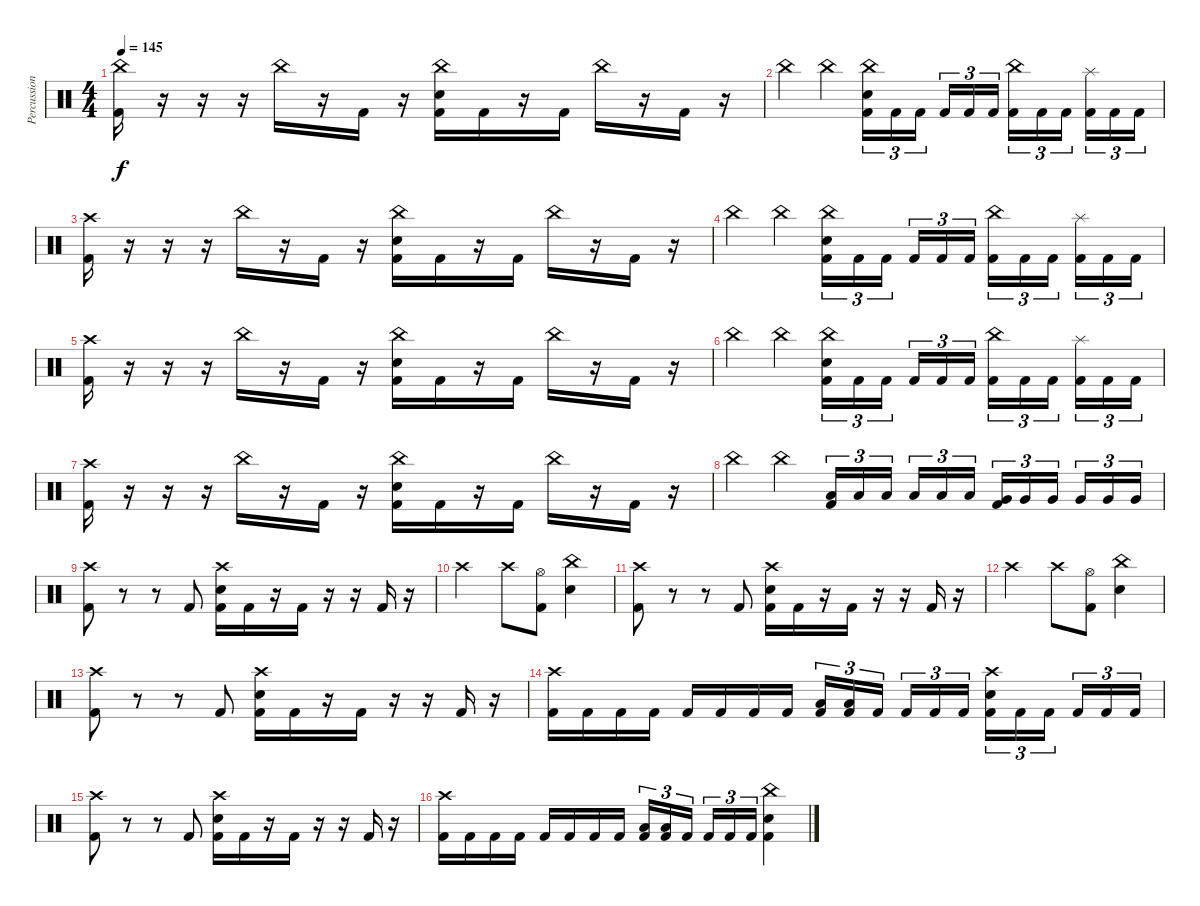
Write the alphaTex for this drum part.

\track ("Percussion" "Percussion") {instrument percussion}
\staff {score}
\articulation defaults
\ts (4 4)
\tempo 145
\clef neutral
\ks c
("China (hit)" "Kick (hit) 2").16{dy f} r.16 r.16 r.16 "China (hit)".16 r.16 "Kick (hit) 2".16 r.16 ("China (hit)" "Electric Snare (hit)" "Kick (hit) 2").16 "Kick (hit) 2".16 r.16 "Kick (hit) 2".16 "China (hit)".16 r.16 "Kick (hit) 2".16 r.16 |
"China (hit)".4 "China (hit)".4 ("China (hit)" "Electric Snare (hit)" "Kick (hit) 2").16{tu (3 2)} "Kick (hit) 2".16{tu (3 2)} "Kick (hit) 2".16{tu (3 2) beam splitsecondary} "Kick (hit) 2".16{tu (3 2)} "Kick (hit) 2".16{tu (3 2)} "Kick (hit) 2".16{tu (3 2)} ("China (hit)" "Kick (hit) 2").16{tu (3 2)} "Kick (hit) 2".16{tu (3 2)} "Kick (hit) 2".16{tu (3 2) beam splitsecondary} ("Splash (hit)" "Kick (hit) 2").16{tu (3 2)} "Kick (hit) 2".16{tu (3 2)} "Kick (hit) 2".16{tu (3 2)} |
("Crash high (hit)" "Kick (hit) 2").16 r.16 r.16 r.16 "China (hit)".16 r.16 "Kick (hit) 2".16 r.16 ("China (hit)" "Electric Snare (hit)" "Kick (hit) 2").16 "Kick (hit) 2".16 r.16 "Kick (hit) 2".16 "China (hit)".16 r.16 "Kick (hit) 2".16 r.16 |
"China (hit)".4 "China (hit)".4 ("China (hit)" "Electric Snare (hit)" "Kick (hit) 2").16{tu (3 2)} "Kick (hit) 2".16{tu (3 2)} "Kick (hit) 2".16{tu (3 2) beam splitsecondary} "Kick (hit) 2".16{tu (3 2)} "Kick (hit) 2".16{tu (3 2)} "Kick (hit) 2".16{tu (3 2)} ("China (hit)" "Kick (hit) 2").16{tu (3 2)} "Kick (hit) 2".16{tu (3 2)} "Kick (hit) 2".16{tu (3 2) beam splitsecondary} ("Splash (hit)" "Kick (hit) 2").16{tu (3 2)} "Kick (hit) 2".16{tu (3 2)} "Kick (hit) 2".16{tu (3 2)} |
("Crash high (hit)" "Kick (hit) 2").16 r.16 r.16 r.16 "China (hit)".16 r.16 "Kick (hit) 2".16 r.16 ("China (hit)" "Electric Snare (hit)" "Kick (hit) 2").16 "Kick (hit) 2".16 r.16 "Kick (hit) 2".16 "China (hit)".16 r.16 "Kick (hit) 2".16 r.16 |
"China (hit)".4 "China (hit)".4 ("China (hit)" "Electric Snare (hit)" "Kick (hit) 2").16{tu (3 2)} "Kick (hit) 2".16{tu (3 2)} "Kick (hit) 2".16{tu (3 2) beam splitsecondary} "Kick (hit) 2".16{tu (3 2)} "Kick (hit) 2".16{tu (3 2)} "Kick (hit) 2".16{tu (3 2)} ("China (hit)" "Kick (hit) 2").16{tu (3 2)} "Kick (hit) 2".16{tu (3 2)} "Kick (hit) 2".16{tu (3 2) beam splitsecondary} ("Splash (hit)" "Kick (hit) 2").16{tu (3 2)} "Kick (hit) 2".16{tu (3 2)} "Kick (hit) 2".16{tu (3 2)} |
("Crash high (hit)" "Kick (hit) 2").16 r.16 r.16 r.16 "China (hit)".16 r.16 "Kick (hit) 2".16 r.16 ("China (hit)" "Electric Snare (hit)" "Kick (hit) 2").16 "Kick (hit) 2".16 r.16 "Kick (hit) 2".16 "China (hit)".16 r.16 "Kick (hit) 2".16 r.16 |
"China (hit)".4 "China (hit)".4 ("Low Tom (hit)" "Kick (hit) 2").16{tu (3 2)} "Low Tom (hit)".16{tu (3 2)} "Low Tom (hit)".16{tu (3 2) beam splitsecondary} "Low Tom (hit)".16{tu (3 2)} "Low Tom (hit)".16{tu (3 2)} "Low Tom (hit)".16{tu (3 2)} ("Very Low Tom (hit)" "Kick (hit) 2").16{tu (3 2)} "Very Low Tom (hit)".16{tu (3 2)} "Very Low Tom (hit)".16{tu (3 2) beam splitsecondary} "Very Low Tom (hit)".16{tu (3 2)} "Very Low Tom (hit)".16{tu (3 2)} "Very Low Tom (hit)".16{tu (3 2)} |
("Crash high (hit)" "Kick (hit) 2").8 r.8{volume 0} r.8 "Kick (hit) 2".8{volume 13} ("Crash high (hit)" "Electric Snare (hit)" "Kick (hit) 2").16 "Kick (hit) 2".16 r.16 "Kick (hit) 2".16 r.16 r.16 "Kick (hit) 2".16 r.16 |
"Crash high (hit)".2 "Crash high (hit)".8 ("Hi-Hat (open)" "Kick (hit) 2").8 ("China (hit)" "Electric Snare (hit)").4 |
("Crash high (hit)" "Kick (hit) 2").8 r.8 r.8 "Kick (hit) 2".8 ("Crash high (hit)" "Electric Snare (hit)" "Kick (hit) 2").16 "Kick (hit) 2".16 r.16 "Kick (hit) 2".16 r.16 r.16 "Kick (hit) 2".16 r.16 |
"Crash high (hit)".2 "Crash high (hit)".8 ("Hi-Hat (open)" "Kick (hit) 2").8 ("China (hit)" "Electric Snare (hit)").4 |
("Crash high (hit)" "Kick (hit) 2").8 r.8{volume 0} r.8 "Kick (hit) 2".8{volume 13} ("Crash high (hit)" "Electric Snare (hit)" "Kick (hit) 2").16 "Kick (hit) 2".16 r.16 "Kick (hit) 2".16 r.16 r.16 "Kick (hit) 2".16 r.16 |
("Crash high (hit)" "Kick (hit) 2").16 "Kick (hit) 2".16 "Kick (hit) 2".16 "Kick (hit) 2".16 "Kick (hit) 2".16 "Kick (hit) 2".16 "Kick (hit) 2".16 "Kick (hit) 2".16 ("Low Tom (hit)" "Kick (hit) 2").16{tu (3 2)} ("Low Tom (hit)" "Kick (hit) 2").16{tu (3 2)} "Kick (hit) 2".16{tu (3 2) beam splitsecondary} "Kick (hit) 2".16{tu (3 2)} "Kick (hit) 2".16{tu (3 2)} "Kick (hit) 2".16{tu (3 2)} ("Crash high (hit)" "Electric Snare (hit)" "Kick (hit) 2").16{tu (3 2)} "Kick (hit) 2".16{tu (3 2)} "Kick (hit) 2".16{tu (3 2) beam splitsecondary} "Kick (hit) 2".16{tu (3 2)} "Kick (hit) 2".16{tu (3 2)} "Kick (hit) 2".16{tu (3 2)} |
("Crash high (hit)" "Kick (hit) 2").8 r.8 r.8 "Kick (hit) 2".8 ("Crash high (hit)" "Electric Snare (hit)" "Kick (hit) 2").16 "Kick (hit) 2".16 r.16 "Kick (hit) 2".16 r.16 r.16 "Kick (hit) 2".16 r.16 |
("Crash high (hit)" "Kick (hit) 2").16 "Kick (hit) 2".16 "Kick (hit) 2".16 "Kick (hit) 2".16 "Kick (hit) 2".16 "Kick (hit) 2".16 "Kick (hit) 2".16 "Kick (hit) 2".16 ("Low Tom (hit)" "Kick (hit) 2").16{tu (3 2)} ("Low Tom (hit)" "Kick (hit) 2").16{tu (3 2)} "Kick (hit) 2".16{tu (3 2) beam splitsecondary} "Kick (hit) 2".16{tu (3 2)} "Kick (hit) 2".16{tu (3 2)} "Kick (hit) 2".16{tu (3 2)} ("China (hit)" "Electric Snare (hit)" "Kick (hit) 2").4
